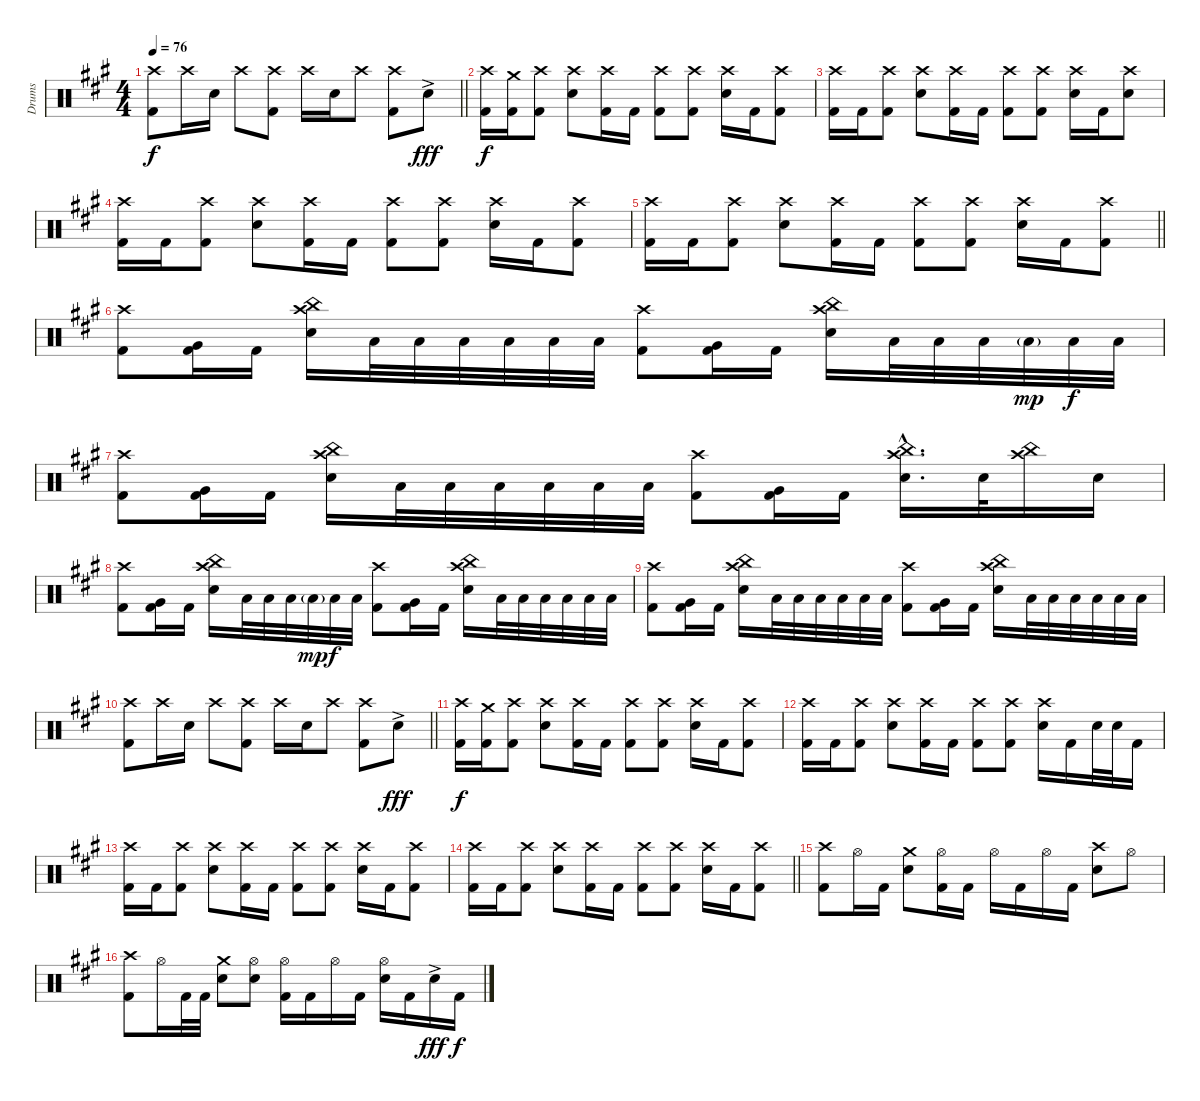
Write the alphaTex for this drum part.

\track ("Drums" "Drums") {instrument percussion}
\staff {score}
\articulation defaults
\ts (4 4)
\tempo 76
\clef neutral
\barLineRight lightlight
\ks f#minor
("Crash high (hit)" "Kick (hit) 2").8{dy f} "Crash high (hit)".16 "Snare (hit) 2".16 "Crash high (hit)".8 ("Crash high (hit)" "Kick (hit) 2").8 "Crash high (hit)".16 "Snare (hit) 2".16 "Crash high (hit)".8 ("Crash high (hit)" "Kick (hit) 2").8 "Snare (hit) 2"{ac}.8{dy fff} |
("Crash high (hit)" "Kick (hit) 2").16{dy f} ("Crash medium (hit)" "Kick (hit) 2").16 ("Crash high (hit)" "Kick (hit) 2").8 ("Crash high (hit)" "Snare (hit) 2").8 ("Crash high (hit)" "Kick (hit) 2").16 "Kick (hit) 2".16 ("Crash high (hit)" "Kick (hit) 2").8 ("Crash high (hit)" "Kick (hit) 2").8 ("Crash high (hit)" "Snare (hit) 2").16 "Kick (hit) 2".16 ("Crash high (hit)" "Kick (hit) 2").8 |
("Crash high (hit)" "Kick (hit) 2").16 "Kick (hit) 2".16 ("Crash high (hit)" "Kick (hit) 2").8 ("Crash high (hit)" "Snare (hit) 2").8 ("Crash high (hit)" "Kick (hit) 2").16 "Kick (hit) 2".16 ("Crash high (hit)" "Kick (hit) 2").8 ("Crash high (hit)" "Kick (hit) 2").8 ("Crash high (hit)" "Snare (hit) 2").16 "Kick (hit) 2".16 ("Crash high (hit)" "Snare (hit) 2").8 |
("Crash high (hit)" "Kick (hit) 2").16 "Kick (hit) 2".16 ("Crash high (hit)" "Kick (hit) 2").8 ("Crash high (hit)" "Snare (hit) 2").8 ("Crash high (hit)" "Kick (hit) 2").16 "Kick (hit) 2".16 ("Crash high (hit)" "Kick (hit) 2").8 ("Crash high (hit)" "Kick (hit) 2").8 ("Crash high (hit)" "Snare (hit) 2").16 "Kick (hit) 2".16 ("Crash high (hit)" "Kick (hit) 2").8 |
\barLineRight lightlight
("Crash high (hit)" "Kick (hit) 2").16 "Kick (hit) 2".16 ("Crash high (hit)" "Kick (hit) 2").8 ("Crash high (hit)" "Snare (hit) 2").8 ("Crash high (hit)" "Kick (hit) 2").16 "Kick (hit) 2".16 ("Crash high (hit)" "Kick (hit) 2").8 ("Crash high (hit)" "Kick (hit) 2").8 ("Crash high (hit)" "Snare (hit) 2").16 "Kick (hit) 2".16 ("Crash high (hit)" "Kick (hit) 2").8 |
("Crash high (hit)" "Kick (hit) 2").8 ("Very Low Tom (hit)" "Kick (hit) 2").16 "Kick (hit) 2".16 ("China (hit)" "Crash high (hit)" "Snare (hit) 2").16 "Low Tom (hit)".32 "Low Tom (hit)".32 "Low Tom (hit)".32 "Low Tom (hit)".32 "Low Tom (hit)".32 "Low Tom (hit)".32 ("Crash high (hit)" "Kick (hit) 2").8 ("Very Low Tom (hit)" "Kick (hit) 2").16 "Kick (hit) 2".16 ("China (hit)" "Crash high (hit)" "Snare (hit) 2").16 "Low Tom (hit)".32 "Low Tom (hit)".32 "Low Tom (hit)".32 "Low Tom (hit)"{g}.32{dy mp} "Low Tom (hit)".32{dy f} "Low Tom (hit)".32 |
("Crash high (hit)" "Kick (hit) 2").8 ("Very Low Tom (hit)" "Kick (hit) 2").16 "Kick (hit) 2".16 ("China (hit)" "Crash high (hit)" "Snare (hit) 2").16 "Low Tom (hit)".32 "Low Tom (hit)".32 "Low Tom (hit)".32 "Low Tom (hit)".32 "Low Tom (hit)".32 "Low Tom (hit)".32 ("Crash high (hit)" "Kick (hit) 2").8 ("Very Low Tom (hit)" "Kick (hit) 2").16 "Kick (hit) 2".16 ("China (hit)"{hac} "Crash high (hit)"{hac} "Snare (hit) 2"{hac}).16{d} "Snare (hit) 2".32 ("China (hit)" "Crash high (hit)").16 "Snare (hit) 2".16 |
("Crash high (hit)" "Kick (hit) 2").8 ("Very Low Tom (hit)" "Kick (hit) 2").16 "Kick (hit) 2".16 ("China (hit)" "Crash high (hit)" "Snare (hit) 2").16 "Low Tom (hit)".32 "Low Tom (hit)".32 "Low Tom (hit)".32 "Low Tom (hit)"{g}.32{dy mp} "Low Tom (hit)".32{dy f} "Low Tom (hit)".32 ("Crash high (hit)" "Kick (hit) 2").8 ("Very Low Tom (hit)" "Kick (hit) 2").16 "Kick (hit) 2".16 ("China (hit)" "Crash high (hit)" "Snare (hit) 2").16 "Low Tom (hit)".32 "Low Tom (hit)".32 "Low Tom (hit)".32 "Low Tom (hit)".32 "Low Tom (hit)".32 "Low Tom (hit)".32 |
("Crash high (hit)" "Kick (hit) 2").8 ("Very Low Tom (hit)" "Kick (hit) 2").16 "Kick (hit) 2".16 ("Crash high (hit)" "China (hit)" "Snare (hit) 2").16 "Low Tom (hit)".32 "Low Tom (hit)".32 "Low Tom (hit)".32 "Low Tom (hit)".32 "Low Tom (hit)".32 "Low Tom (hit)".32 ("Crash high (hit)" "Kick (hit) 2").8 ("Very Low Tom (hit)" "Kick (hit) 2").16 "Kick (hit) 2".16 ("Crash high (hit)" "China (hit)" "Snare (hit) 2").16 "Low Tom (hit)".32 "Low Tom (hit)".32 "Low Tom (hit)".32 "Low Tom (hit)".32 "Low Tom (hit)".32 "Low Tom (hit)".32 |
\barLineRight lightlight
("Crash high (hit)" "Kick (hit) 2").8 "Crash high (hit)".16 "Snare (hit) 2".16 "Crash high (hit)".8 ("Crash high (hit)" "Kick (hit) 2").8 "Crash high (hit)".16 "Snare (hit) 2".16 "Crash high (hit)".8 ("Crash high (hit)" "Kick (hit) 2").8 "Snare (hit) 2"{ac}.8{dy fff} |
("Crash high (hit)" "Kick (hit) 2").16{dy f} ("Crash medium (hit)" "Kick (hit) 2").16 ("Crash high (hit)" "Kick (hit) 2").8 ("Crash high (hit)" "Snare (hit) 2").8 ("Crash high (hit)" "Kick (hit) 2").16 "Kick (hit) 2".16 ("Crash high (hit)" "Kick (hit) 2").8 ("Crash high (hit)" "Kick (hit) 2").8 ("Crash high (hit)" "Snare (hit) 2").16 "Kick (hit) 2".16 ("Crash high (hit)" "Kick (hit) 2").8 |
("Crash high (hit)" "Kick (hit) 2").16 "Kick (hit) 2".16 ("Crash high (hit)" "Kick (hit) 2").8 ("Crash high (hit)" "Snare (hit) 2").8 ("Crash high (hit)" "Kick (hit) 2").16 "Kick (hit) 2".16 ("Crash high (hit)" "Kick (hit) 2").8 ("Crash high (hit)" "Kick (hit) 2").8 ("Crash high (hit)" "Snare (hit) 2").16 "Kick (hit) 2".16 "Snare (hit) 2".32 "Snare (hit) 2".32 "Kick (hit) 2".16 |
("Crash high (hit)" "Kick (hit) 2").16 "Kick (hit) 2".16 ("Crash high (hit)" "Kick (hit) 2").8 ("Crash high (hit)" "Snare (hit) 2").8 ("Crash high (hit)" "Kick (hit) 2").16 "Kick (hit) 2".16 ("Crash high (hit)" "Kick (hit) 2").8 ("Crash high (hit)" "Kick (hit) 2").8 ("Crash high (hit)" "Snare (hit) 2").16 "Kick (hit) 2".16 ("Crash high (hit)" "Kick (hit) 2").8 |
\barLineRight lightlight
("Crash high (hit)" "Kick (hit) 2").16 "Kick (hit) 2".16 ("Crash high (hit)" "Kick (hit) 2").8 ("Crash high (hit)" "Snare (hit) 2").8 ("Crash high (hit)" "Kick (hit) 2").16 "Kick (hit) 2".16 ("Crash high (hit)" "Kick (hit) 2").8 ("Crash high (hit)" "Kick (hit) 2").8 ("Crash high (hit)" "Snare (hit) 2").16 "Kick (hit) 2".16 ("Crash high (hit)" "Kick (hit) 2").8 |
("Crash high (hit)" "Kick (hit) 2").8 "Hi-Hat (open)".16 "Kick (hit) 2".16 ("Crash medium (hit)" "Snare (hit) 2").8 ("Hi-Hat (open)" "Kick (hit) 2").16 "Kick (hit) 2".16 "Hi-Hat (open)".16 "Kick (hit) 2".16 "Hi-Hat (open)".16 "Kick (hit) 2".16 ("Crash high (hit)" "Snare (hit) 2").8 "Hi-Hat (open)".8 |
("Crash high (hit)" "Kick (hit) 2").8 "Hi-Hat (open)".16 "Kick (hit) 2".32 "Kick (hit) 2".32 ("Crash medium (hit)" "Snare (hit) 2").8 ("Hi-Hat (open)" "Snare (hit) 2").8 ("Hi-Hat (open)" "Kick (hit) 2").16 "Kick (hit) 2".16 "Hi-Hat (open)".16 "Kick (hit) 2".16 ("Hi-Hat (open)" "Snare (hit) 2").16 "Kick (hit) 2".16 "Snare (hit) 2"{ac}.16{dy fff} "Kick (hit) 2".16{dy f}
